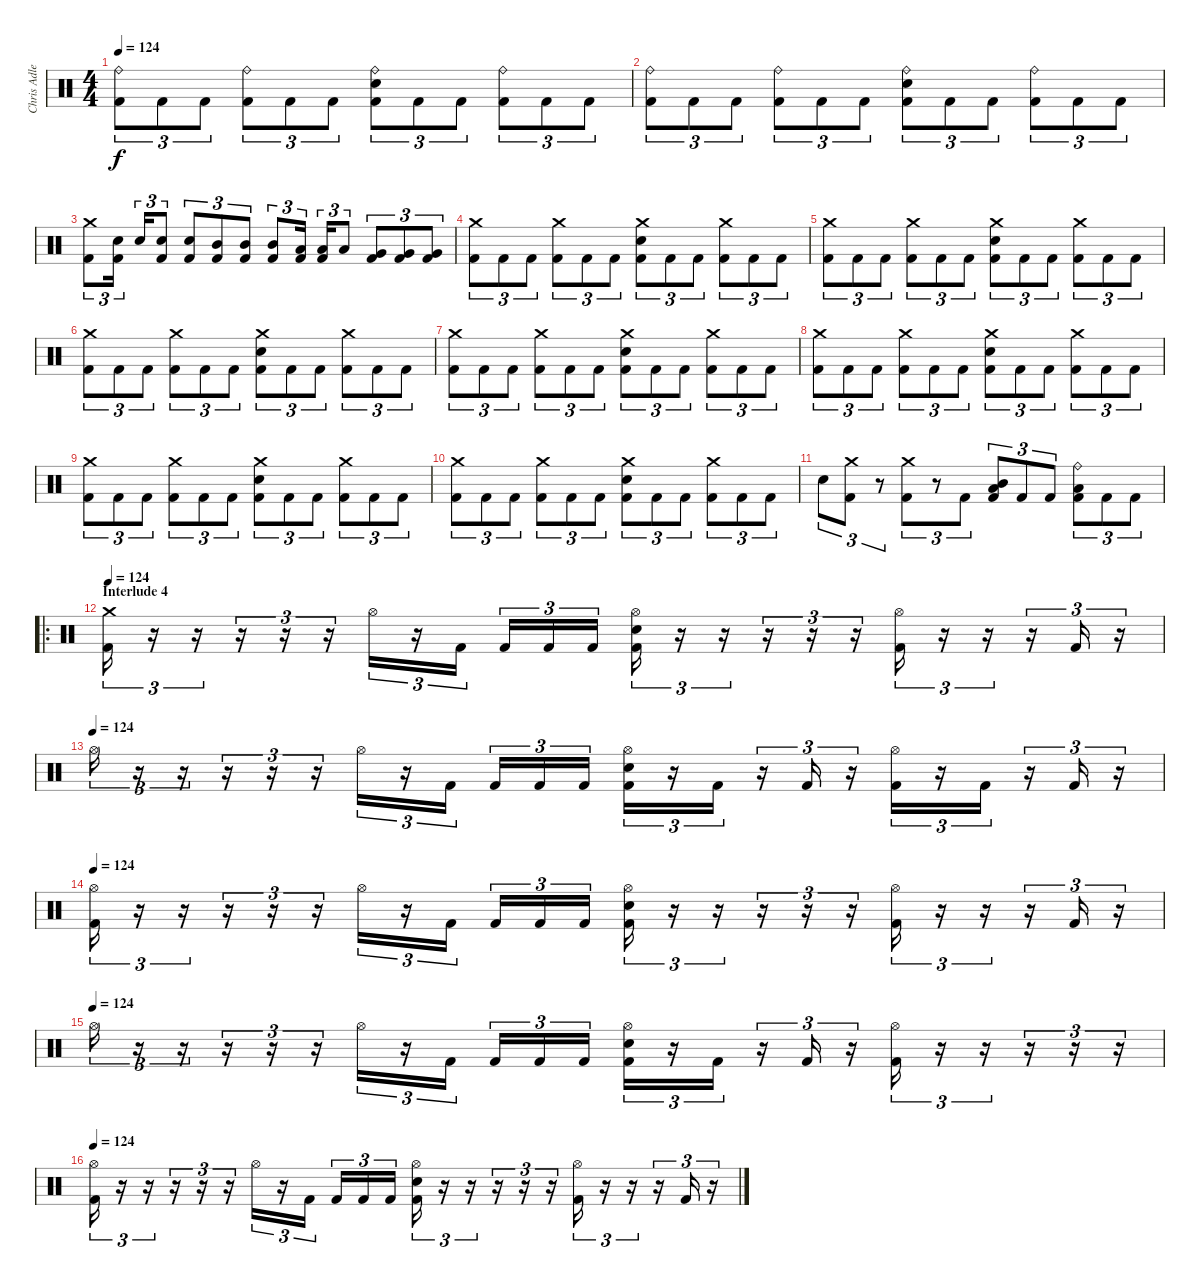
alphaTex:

\track ("Chris Adler" "Chris Adle") {instrument percussion}
\staff {score}
\articulation defaults
\ts (4 4)
\tempo 124
\clef neutral
\ks c
("Ride (bell)" "Kick (hit) 2").8{tu (3 2) dy f} "Kick (hit) 2".8{tu (3 2)} "Kick (hit) 2".8{tu (3 2)} ("Ride (bell)" "Kick (hit) 2").8{tu (3 2)} "Kick (hit) 2".8{tu (3 2)} "Kick (hit) 2".8{tu (3 2)} ("Ride (bell)" "Snare (hit) 2" "Kick (hit) 2").8{tu (3 2)} "Kick (hit) 2".8{tu (3 2)} "Kick (hit) 2".8{tu (3 2)} ("Ride (bell)" "Kick (hit) 2").8{tu (3 2)} "Kick (hit) 2".8{tu (3 2)} "Kick (hit) 2".8{tu (3 2)} |
("Ride (bell)" "Kick (hit) 2").8{tu (3 2)} "Kick (hit) 2".8{tu (3 2)} "Kick (hit) 2".8{tu (3 2)} ("Ride (bell)" "Kick (hit) 2").8{tu (3 2)} "Kick (hit) 2".8{tu (3 2)} "Kick (hit) 2".8{tu (3 2)} ("Ride (bell)" "Snare (hit) 2" "Kick (hit) 2").8{tu (3 2)} "Kick (hit) 2".8{tu (3 2)} "Kick (hit) 2".8{tu (3 2)} ("Ride (bell)" "Kick (hit) 2").8{tu (3 2)} "Kick (hit) 2".8{tu (3 2)} "Kick (hit) 2".8{tu (3 2)} |
("Crash medium (hit)" "Kick (hit) 2").8{tu (3 2)} ("Snare (hit) 2" "Kick (hit) 2").16{tu (3 2)} "Snare (hit) 2".16{tu (3 2)} ("Snare (hit) 2" "Kick (hit) 2").8{tu (3 2)} ("Snare (hit) 2" "Kick (hit) 2").8{tu (3 2)} ("Mid Tom (hit)" "Kick (hit) 2").8{tu (3 2)} ("Mid Tom (hit)" "Kick (hit) 2").8{tu (3 2)} ("Mid Tom (hit)" "Kick (hit) 2").8{tu (3 2)} ("Low Tom (hit)" "Kick (hit) 2").16{tu (3 2)} ("Low Tom (hit)" "Kick (hit) 2").16{tu (3 2)} "Low Tom (hit)".8{tu (3 2)} ("Very Low Tom (hit)" "Kick (hit) 2").8{tu (3 2)} ("Very Low Tom (hit)" "Kick (hit) 2").8{tu (3 2)} ("Very Low Tom (hit)" "Kick (hit) 2").8{tu (3 2)} |
("Crash medium (hit)" "Kick (hit) 2").8{tu (3 2)} "Kick (hit) 2".8{tu (3 2)} "Kick (hit) 2".8{tu (3 2)} ("Crash medium (hit)" "Kick (hit) 2").8{tu (3 2)} "Kick (hit) 2".8{tu (3 2)} "Kick (hit) 2".8{tu (3 2)} ("Crash medium (hit)" "Snare (hit) 2" "Kick (hit) 2").8{tu (3 2)} "Kick (hit) 2".8{tu (3 2)} "Kick (hit) 2".8{tu (3 2)} ("Crash medium (hit)" "Kick (hit) 2").8{tu (3 2)} "Kick (hit) 2".8{tu (3 2)} "Kick (hit) 2".8{tu (3 2)} |
("Crash medium (hit)" "Kick (hit) 2").8{tu (3 2)} "Kick (hit) 2".8{tu (3 2)} "Kick (hit) 2".8{tu (3 2)} ("Crash medium (hit)" "Kick (hit) 2").8{tu (3 2)} "Kick (hit) 2".8{tu (3 2)} "Kick (hit) 2".8{tu (3 2)} ("Crash medium (hit)" "Snare (hit) 2" "Kick (hit) 2").8{tu (3 2)} "Kick (hit) 2".8{tu (3 2)} "Kick (hit) 2".8{tu (3 2)} ("Crash medium (hit)" "Kick (hit) 2").8{tu (3 2)} "Kick (hit) 2".8{tu (3 2)} "Kick (hit) 2".8{tu (3 2)} |
("Crash medium (hit)" "Kick (hit) 2").8{tu (3 2)} "Kick (hit) 2".8{tu (3 2)} "Kick (hit) 2".8{tu (3 2)} ("Crash medium (hit)" "Kick (hit) 2").8{tu (3 2)} "Kick (hit) 2".8{tu (3 2)} "Kick (hit) 2".8{tu (3 2)} ("Crash medium (hit)" "Snare (hit) 2" "Kick (hit) 2").8{tu (3 2)} "Kick (hit) 2".8{tu (3 2)} "Kick (hit) 2".8{tu (3 2)} ("Crash medium (hit)" "Kick (hit) 2").8{tu (3 2)} "Kick (hit) 2".8{tu (3 2)} "Kick (hit) 2".8{tu (3 2)} |
("Crash medium (hit)" "Kick (hit) 2").8{tu (3 2)} "Kick (hit) 2".8{tu (3 2)} "Kick (hit) 2".8{tu (3 2)} ("Crash medium (hit)" "Kick (hit) 2").8{tu (3 2)} "Kick (hit) 2".8{tu (3 2)} "Kick (hit) 2".8{tu (3 2)} ("Crash medium (hit)" "Snare (hit) 2" "Kick (hit) 2").8{tu (3 2)} "Kick (hit) 2".8{tu (3 2)} "Kick (hit) 2".8{tu (3 2)} ("Crash medium (hit)" "Kick (hit) 2").8{tu (3 2)} "Kick (hit) 2".8{tu (3 2)} "Kick (hit) 2".8{tu (3 2)} |
("Crash medium (hit)" "Kick (hit) 2").8{tu (3 2)} "Kick (hit) 2".8{tu (3 2)} "Kick (hit) 2".8{tu (3 2)} ("Crash medium (hit)" "Kick (hit) 2").8{tu (3 2)} "Kick (hit) 2".8{tu (3 2)} "Kick (hit) 2".8{tu (3 2)} ("Crash medium (hit)" "Snare (hit) 2" "Kick (hit) 2").8{tu (3 2)} "Kick (hit) 2".8{tu (3 2)} "Kick (hit) 2".8{tu (3 2)} ("Crash medium (hit)" "Kick (hit) 2").8{tu (3 2)} "Kick (hit) 2".8{tu (3 2)} "Kick (hit) 2".8{tu (3 2)} |
("Crash medium (hit)" "Kick (hit) 2").8{tu (3 2)} "Kick (hit) 2".8{tu (3 2)} "Kick (hit) 2".8{tu (3 2)} ("Crash medium (hit)" "Kick (hit) 2").8{tu (3 2)} "Kick (hit) 2".8{tu (3 2)} "Kick (hit) 2".8{tu (3 2)} ("Crash medium (hit)" "Snare (hit) 2" "Kick (hit) 2").8{tu (3 2)} "Kick (hit) 2".8{tu (3 2)} "Kick (hit) 2".8{tu (3 2)} ("Crash medium (hit)" "Kick (hit) 2").8{tu (3 2)} "Kick (hit) 2".8{tu (3 2)} "Kick (hit) 2".8{tu (3 2)} |
("Crash medium (hit)" "Kick (hit) 2").8{tu (3 2)} "Kick (hit) 2".8{tu (3 2)} "Kick (hit) 2".8{tu (3 2)} ("Crash medium (hit)" "Kick (hit) 2").8{tu (3 2)} "Kick (hit) 2".8{tu (3 2)} "Kick (hit) 2".8{tu (3 2)} ("Crash medium (hit)" "Snare (hit) 2" "Kick (hit) 2").8{tu (3 2)} "Kick (hit) 2".8{tu (3 2)} "Kick (hit) 2".8{tu (3 2)} ("Crash medium (hit)" "Kick (hit) 2").8{tu (3 2)} "Kick (hit) 2".8{tu (3 2)} "Kick (hit) 2".8{tu (3 2)} |
"Snare (hit) 2".8{tu (3 2)} ("Crash medium (hit)" "Kick (hit) 2").8{tu (3 2)} r.8{tu (3 2)} ("Crash medium (hit)" "Kick (hit) 2").8{tu (3 2)} r.8{tu (3 2)} "Kick (hit) 2".8{tu (3 2)} ("Mid Tom (hit)" "Low Tom (hit)" "Kick (hit) 2").8{tu (3 2)} "Kick (hit) 2".8{tu (3 2)} "Kick (hit) 2".8{tu (3 2)} ("Low Tom (hit)" "Ride (bell)" "Kick (hit) 2").8{tu (3 2)} "Kick (hit) 2".8{tu (3 2)} "Kick (hit) 2".8{tu (3 2)} |
\ro
\section ("" "Interlude 4")
\tempo 124
("Crash medium (hit)" "Kick (hit) 2").16{tu (3 2)} r.16{tu (3 2)} r.16{tu (3 2)} r.16{tu (3 2)} r.16{tu (3 2)} r.16{tu (3 2)} "Hi-Hat (open)".16{tu (3 2)} r.16{tu (3 2)} "Kick (hit) 2".16{tu (3 2)} "Kick (hit) 2".16{tu (3 2)} "Kick (hit) 2".16{tu (3 2)} "Kick (hit) 2".16{tu (3 2)} ("Hi-Hat (open)" "Snare (hit) 2" "Kick (hit) 2").16{tu (3 2)} r.16{tu (3 2)} r.16{tu (3 2)} r.16{tu (3 2)} r.16{tu (3 2)} r.16{tu (3 2)} ("Hi-Hat (open)" "Kick (hit) 2").16{tu (3 2)} r.16{tu (3 2)} r.16{tu (3 2)} r.16{tu (3 2)} "Kick (hit) 2".16{tu (3 2)} r.16{tu (3 2)} |
\tempo (124)
"Hi-Hat (open)".16{tu (3 2)} r.16{tu (3 2)} r.16{tu (3 2)} r.16{tu (3 2)} r.16{tu (3 2)} r.16{tu (3 2)} "Hi-Hat (open)".16{tu (3 2)} r.16{tu (3 2)} "Kick (hit) 2".16{tu (3 2)} "Kick (hit) 2".16{tu (3 2)} "Kick (hit) 2".16{tu (3 2)} "Kick (hit) 2".16{tu (3 2)} ("Hi-Hat (open)" "Snare (hit) 2" "Kick (hit) 2").16{tu (3 2)} r.16{tu (3 2)} "Kick (hit) 2".16{tu (3 2)} r.16{tu (3 2)} "Kick (hit) 2".16{tu (3 2)} r.16{tu (3 2)} ("Hi-Hat (open)" "Kick (hit) 2").16{tu (3 2)} r.16{tu (3 2)} "Kick (hit) 2".16{tu (3 2)} r.16{tu (3 2)} "Kick (hit) 2".16{tu (3 2)} r.16{tu (3 2)} |
\tempo 124
("Hi-Hat (open)" "Kick (hit) 2").16{tu (3 2)} r.16{tu (3 2)} r.16{tu (3 2)} r.16{tu (3 2)} r.16{tu (3 2)} r.16{tu (3 2)} "Hi-Hat (open)".16{tu (3 2)} r.16{tu (3 2)} "Kick (hit) 2".16{tu (3 2)} "Kick (hit) 2".16{tu (3 2)} "Kick (hit) 2".16{tu (3 2)} "Kick (hit) 2".16{tu (3 2)} ("Hi-Hat (open)" "Snare (hit) 2" "Kick (hit) 2").16{tu (3 2)} r.16{tu (3 2)} r.16{tu (3 2)} r.16{tu (3 2)} r.16{tu (3 2)} r.16{tu (3 2)} ("Hi-Hat (open)" "Kick (hit) 2").16{tu (3 2)} r.16{tu (3 2)} r.16{tu (3 2)} r.16{tu (3 2)} "Kick (hit) 2".16{tu (3 2)} r.16{tu (3 2)} |
\tempo (124)
"Hi-Hat (open)".16{tu (3 2)} r.16{tu (3 2)} r.16{tu (3 2)} r.16{tu (3 2)} r.16{tu (3 2)} r.16{tu (3 2)} "Hi-Hat (open)".16{tu (3 2)} r.16{tu (3 2)} "Kick (hit) 2".16{tu (3 2)} "Kick (hit) 2".16{tu (3 2)} "Kick (hit) 2".16{tu (3 2)} "Kick (hit) 2".16{tu (3 2)} ("Hi-Hat (open)" "Snare (hit) 2" "Kick (hit) 2").16{tu (3 2)} r.16{tu (3 2)} "Kick (hit) 2".16{tu (3 2)} r.16{tu (3 2)} "Kick (hit) 2".16{tu (3 2)} r.16{tu (3 2)} ("Hi-Hat (open)" "Kick (hit) 2").16{tu (3 2)} r.16{tu (3 2)} r.16{tu (3 2)} r.16{tu (3 2)} r.16{tu (3 2)} r.16{tu (3 2)} |
\tempo 124
("Hi-Hat (open)" "Kick (hit) 2").16{tu (3 2)} r.16{tu (3 2)} r.16{tu (3 2)} r.16{tu (3 2)} r.16{tu (3 2)} r.16{tu (3 2)} "Hi-Hat (open)".16{tu (3 2)} r.16{tu (3 2)} "Kick (hit) 2".16{tu (3 2)} "Kick (hit) 2".16{tu (3 2)} "Kick (hit) 2".16{tu (3 2)} "Kick (hit) 2".16{tu (3 2)} ("Hi-Hat (open)" "Snare (hit) 2" "Kick (hit) 2").16{tu (3 2)} r.16{tu (3 2)} r.16{tu (3 2)} r.16{tu (3 2)} r.16{tu (3 2)} r.16{tu (3 2)} ("Hi-Hat (open)" "Kick (hit) 2").16{tu (3 2)} r.16{tu (3 2)} r.16{tu (3 2)} r.16{tu (3 2)} "Kick (hit) 2".16{tu (3 2)} r.16{tu (3 2)}
